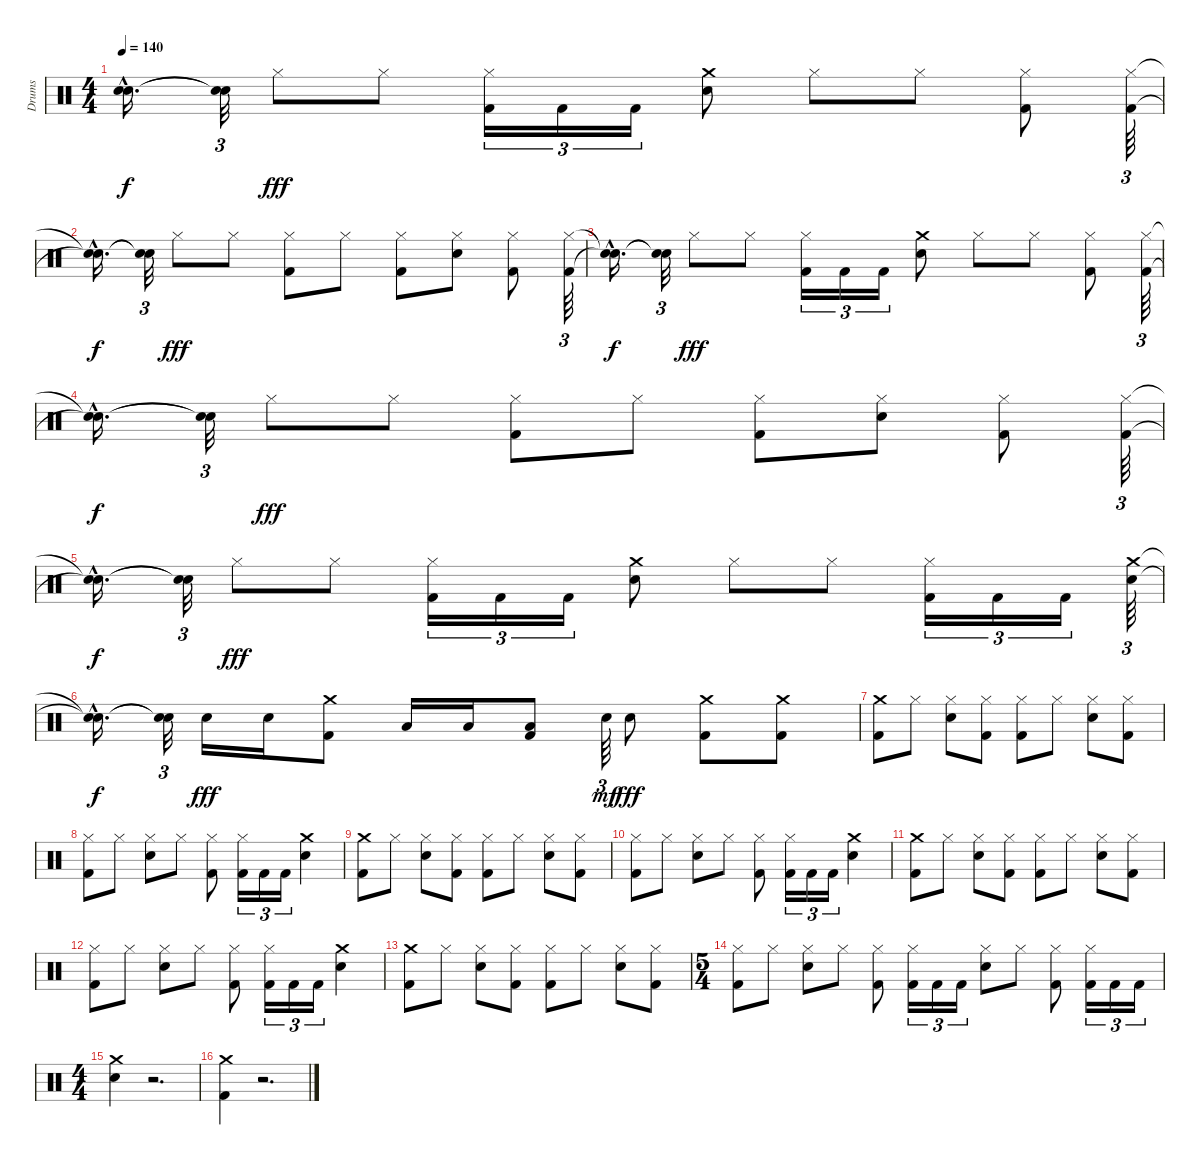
\track ("Drums" "Drums") {instrument percussion}
\staff {score}
\articulation defaults
\ts (4 4)
\tempo 140
\clef neutral
\ks c
("Snare (hit)"{hac t} "Snare (hit)"{hac t}).16{d dy f} ("Snare (hit)"{t} "Snare (hit)"{t}).32{tu (3 2)} "Hi-Hat (closed)".8{dy fff} "Hi-Hat (closed)".8 ("Hi-Hat (closed)" "Kick (hit) 2").16{tu (3 2)} "Kick (hit) 2".16{tu (3 2)} "Kick (hit) 2".16{tu (3 2)} ("Crash medium (hit)" "Snare (hit) 2").8 "Hi-Hat (closed)".8 "Hi-Hat (closed)".8 ("Hi-Hat (closed)" "Kick (hit) 2").8 ("Hi-Hat (closed)" "Kick (hit) 2").64{tu (3 2)} |
("Snare (hit)"{hac t} "Snare (hit)"{hac t}).16{d dy f} ("Snare (hit)"{t} "Snare (hit)"{t}).32{tu (3 2)} "Hi-Hat (closed)".8{dy fff} "Hi-Hat (closed)".8 ("Kick (hit) 2" "Hi-Hat (closed)").8 "Hi-Hat (closed)".8 ("Kick (hit) 2" "Hi-Hat (closed)").8 ("Hi-Hat (closed)" "Snare (hit) 2").8 ("Kick (hit) 2" "Hi-Hat (closed)").8 ("Hi-Hat (closed)" "Kick (hit) 2").64{tu (3 2)} |
("Snare (hit)"{hac t} "Snare (hit)"{hac t}).16{d dy f} ("Snare (hit)"{t} "Snare (hit)"{t}).32{tu (3 2)} "Hi-Hat (closed)".8{dy fff} "Hi-Hat (closed)".8 ("Hi-Hat (closed)" "Kick (hit) 2").16{tu (3 2)} "Kick (hit) 2".16{tu (3 2)} "Kick (hit) 2".16{tu (3 2)} ("Crash medium (hit)" "Snare (hit) 2").8 "Hi-Hat (closed)".8 "Hi-Hat (closed)".8 ("Hi-Hat (closed)" "Kick (hit) 2").8 ("Hi-Hat (closed)" "Kick (hit) 2").64{tu (3 2)} |
("Snare (hit)"{hac t} "Snare (hit)"{hac t}).16{d dy f} ("Snare (hit)"{t} "Snare (hit)"{t}).32{tu (3 2)} "Hi-Hat (closed)".8{dy fff} "Hi-Hat (closed)".8 ("Kick (hit) 2" "Hi-Hat (closed)").8 "Hi-Hat (closed)".8 ("Kick (hit) 2" "Hi-Hat (closed)").8 ("Hi-Hat (closed)" "Snare (hit) 2").8 ("Kick (hit) 2" "Hi-Hat (closed)").8 ("Hi-Hat (closed)" "Kick (hit) 2").64{tu (3 2)} |
("Snare (hit)"{hac t} "Snare (hit)"{hac t}).16{d dy f} ("Snare (hit)"{t} "Snare (hit)"{t}).32{tu (3 2)} "Hi-Hat (closed)".8{dy fff} "Hi-Hat (closed)".8 ("Hi-Hat (closed)" "Kick (hit) 2").16{tu (3 2)} "Kick (hit) 2".16{tu (3 2)} "Kick (hit) 2".16{tu (3 2)} ("Crash medium (hit)" "Snare (hit) 2").8 "Hi-Hat (closed)".8 "Hi-Hat (closed)".8 ("Hi-Hat (closed)" "Kick (hit) 2").16{tu (3 2)} "Kick (hit) 2".16{tu (3 2)} "Kick (hit) 2".16{tu (3 2)} ("Snare (hit) 2" "Crash medium (hit)").64{tu (3 2)} |
("Snare (hit)"{hac t} "Snare (hit)"{hac t}).16{d dy f} ("Snare (hit)"{t} "Snare (hit)"{t}).32{tu (3 2)} "Snare (hit) 2".16{dy fff} "Snare (hit) 2".16 ("Kick (hit) 2" "Crash medium (hit)").8 "Low Tom (hit)".16 "Low Tom (hit)".16 ("Kick (hit) 2" "Low Tom (hit)").8 "Snare (hit) 2".64{tu (3 2) dy mf} "Snare (hit) 2".8{dy fff} ("Kick (hit) 2" "Crash medium (hit)").8 ("Kick (hit) 2" "Crash medium (hit)").8 |
("Crash medium (hit)" "Kick (hit) 2").8 "Hi-Hat (closed)".8 ("Snare (hit) 2" "Hi-Hat (closed)").8 ("Hi-Hat (closed)" "Kick (hit) 2").8 ("Hi-Hat (closed)" "Kick (hit) 2").8 "Hi-Hat (closed)".8 ("Snare (hit) 2" "Hi-Hat (closed)").8 ("Hi-Hat (closed)" "Kick (hit) 2").8 |
("Hi-Hat (closed)" "Kick (hit) 2").8 "Hi-Hat (closed)".8 ("Snare (hit) 2" "Hi-Hat (closed)").8 "Hi-Hat (closed)".8 ("Hi-Hat (closed)" "Kick (hit) 2").8 ("Hi-Hat (closed)" "Kick (hit) 2").16{tu (3 2)} "Kick (hit) 2".16{tu (3 2)} "Kick (hit) 2".16{tu (3 2)} ("Crash medium (hit)" "Snare (hit) 2").4 |
("Crash medium (hit)" "Kick (hit) 2").8 "Hi-Hat (closed)".8 ("Snare (hit) 2" "Hi-Hat (closed)").8 ("Hi-Hat (closed)" "Kick (hit) 2").8 ("Hi-Hat (closed)" "Kick (hit) 2").8 "Hi-Hat (closed)".8 ("Snare (hit) 2" "Hi-Hat (closed)").8 ("Hi-Hat (closed)" "Kick (hit) 2").8 |
("Hi-Hat (closed)" "Kick (hit) 2").8 "Hi-Hat (closed)".8 ("Snare (hit) 2" "Hi-Hat (closed)").8 "Hi-Hat (closed)".8 ("Hi-Hat (closed)" "Kick (hit) 2").8 ("Hi-Hat (closed)" "Kick (hit) 2").16{tu (3 2)} "Kick (hit) 2".16{tu (3 2)} "Kick (hit) 2".16{tu (3 2)} ("Crash medium (hit)" "Snare (hit) 2").4 |
("Crash medium (hit)" "Kick (hit) 2").8 "Hi-Hat (closed)".8 ("Snare (hit) 2" "Hi-Hat (closed)").8 ("Hi-Hat (closed)" "Kick (hit) 2").8 ("Hi-Hat (closed)" "Kick (hit) 2").8 "Hi-Hat (closed)".8 ("Snare (hit) 2" "Hi-Hat (closed)").8 ("Hi-Hat (closed)" "Kick (hit) 2").8 |
("Hi-Hat (closed)" "Kick (hit) 2").8 "Hi-Hat (closed)".8 ("Snare (hit) 2" "Hi-Hat (closed)").8 "Hi-Hat (closed)".8 ("Hi-Hat (closed)" "Kick (hit) 2").8 ("Hi-Hat (closed)" "Kick (hit) 2").16{tu (3 2)} "Kick (hit) 2".16{tu (3 2)} "Kick (hit) 2".16{tu (3 2)} ("Crash medium (hit)" "Snare (hit) 2").4 |
("Kick (hit) 2" "Crash medium (hit)").8 "Hi-Hat (closed)".8 ("Snare (hit) 2" "Hi-Hat (closed)").8 ("Kick (hit) 2" "Hi-Hat (closed)").8 ("Kick (hit) 2" "Hi-Hat (closed)").8 "Hi-Hat (closed)".8 ("Snare (hit) 2" "Hi-Hat (closed)").8 ("Kick (hit) 2" "Hi-Hat (closed)").8 |
\ts (5 4)
("Hi-Hat (closed)" "Kick (hit) 2").8 "Hi-Hat (closed)".8 ("Snare (hit) 2" "Hi-Hat (closed)").8 "Hi-Hat (closed)".8 ("Hi-Hat (closed)" "Kick (hit) 2").8 ("Hi-Hat (closed)" "Kick (hit) 2").16{tu (3 2)} "Kick (hit) 2".16{tu (3 2)} "Kick (hit) 2".16{tu (3 2)} ("Snare (hit) 2" "Hi-Hat (closed)").8 "Hi-Hat (closed)".8 ("Hi-Hat (closed)" "Kick (hit) 2").8 ("Hi-Hat (closed)" "Kick (hit) 2").16{tu (3 2)} "Kick (hit) 2".16{tu (3 2)} "Kick (hit) 2".16{tu (3 2)} |
\ts (4 4)
("Snare (hit) 2" "Crash medium (hit)").4 r.2{d} |
("Kick (hit) 2" "Crash medium (hit)").4 r.2{d}
